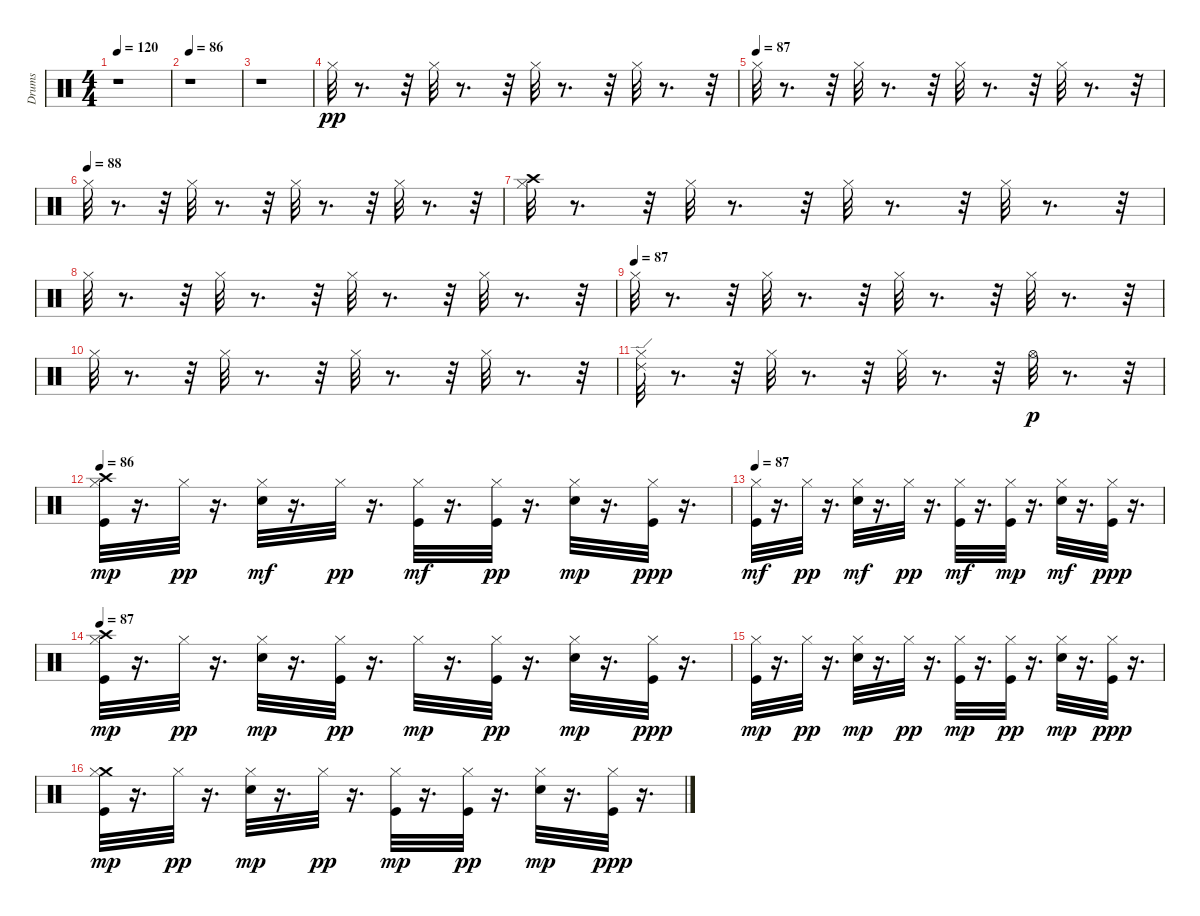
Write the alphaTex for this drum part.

\track ("Drums" "Drums") {instrument percussion}
\staff {score}
\articulation defaults
\ts (4 4)
\tempo 120
\clef neutral
\ks c
r.1{dy pp} |
\tempo 86
r.1 |
r.1 |
"Hi-Hat (closed)".32 r.8{d} r.32 "Hi-Hat (closed)".32 r.8{d} r.32 "Hi-Hat (closed)".32 r.8{d} r.32 "Hi-Hat (closed)".32 r.8{d} r.32 |
\tempo (87)
"Hi-Hat (closed)".32 r.8{d} r.32 "Hi-Hat (closed)".32 r.8{d} r.32 "Hi-Hat (closed)".32 r.8{d} r.32 "Hi-Hat (closed)".32 r.8{d} r.32 |
\tempo (88)
"Hi-Hat (closed)".32 r.8{d} r.32 "Hi-Hat (closed)".32 r.8{d} r.32 "Hi-Hat (closed)".32 r.8{d} r.32 "Hi-Hat (closed)".32 r.8{d} r.32 |
("Crash high (hit)" "Hi-Hat (closed)").32 r.8{d} r.32 "Hi-Hat (closed)".32 r.8{d} r.32 "Hi-Hat (closed)".32 r.8{d} r.32 "Hi-Hat (closed)".32 r.8{d} r.32 |
"Hi-Hat (closed)".32 r.8{d} r.32 "Hi-Hat (closed)".32 r.8{d} r.32 "Hi-Hat (closed)".32 r.8{d} r.32 "Hi-Hat (closed)".32 r.8{d} r.32 |
\tempo (87)
"Hi-Hat (closed)".32 r.8{d} r.32 "Hi-Hat (closed)".32 r.8{d} r.32 "Hi-Hat (closed)".32 r.8{d} r.32 "Hi-Hat (closed)".32 r.8{d} r.32 |
"Hi-Hat (closed)".32 r.8{d} r.32 "Hi-Hat (closed)".32 r.8{d} r.32 "Hi-Hat (closed)".32 r.8{d} r.32 "Hi-Hat (closed)".32 r.8{d} r.32 |
("Ride (edge) 2" "Hi-Hat (closed)").32 r.8{d} r.32 "Hi-Hat (closed)".32 r.8{d} r.32 "Hi-Hat (closed)".32 r.8{d} r.32 "Hi-Hat (open)".32{dy p} r.8{d} r.32 |
\tempo 86
("Crash high (hit)" "Kick (hit)" "Hi-Hat (closed)").32{dy mp} r.16{d} "Hi-Hat (closed)".32{dy pp} r.16{d} ("Hi-Hat (closed)" "Electric Snare (hit)").32{dy mf} r.16{d} "Hi-Hat (closed)".32{dy pp} r.16{d} ("Hi-Hat (closed)" "Kick (hit)").32{dy mf} r.16{d} ("Kick (hit)" "Hi-Hat (closed)").32{dy pp} r.16{d} ("Electric Snare (hit)" "Hi-Hat (closed)").32{dy mp} r.16{d} ("Hi-Hat (closed)" "Kick (hit)").32{dy ppp} r.16{d} |
\tempo 87
("Hi-Hat (closed)" "Kick (hit)").32{dy mf} r.16{d} "Hi-Hat (closed)".32{dy pp} r.16{d} ("Hi-Hat (closed)" "Electric Snare (hit)").32{dy mf} r.16{d} "Hi-Hat (closed)".32{dy pp} r.16{d} ("Hi-Hat (closed)" "Kick (hit)").32{dy mf} r.16{d} ("Hi-Hat (closed)" "Kick (hit)").32{dy mp} r.16{d} ("Hi-Hat (closed)" "Electric Snare (hit)").32{dy mf} r.16{d} ("Hi-Hat (closed)" "Kick (hit)").32{dy ppp} r.16{d} |
\tempo 87
("Kick (hit)" "Crash high (hit)" "Hi-Hat (closed)").32{dy mp} r.16{d} "Hi-Hat (closed)".32{dy pp} r.16{d} ("Electric Snare (hit)" "Hi-Hat (closed)").32{dy mp} r.16{d} ("Kick (hit)" "Hi-Hat (closed)").32{dy pp} r.16{d} "Hi-Hat (closed)".32{dy mp} r.16{d} ("Kick (hit)" "Hi-Hat (closed)").32{dy pp} r.16{d} ("Electric Snare (hit)" "Hi-Hat (closed)").32{dy mp} r.16{d} ("Kick (hit)" "Hi-Hat (closed)").32{dy ppp} r.16{d} |
("Kick (hit)" "Hi-Hat (closed)").32{dy mp} r.16{d} "Hi-Hat (closed)".32{dy pp} r.16{d} ("Electric Snare (hit)" "Hi-Hat (closed)").32{dy mp} r.16{d} "Hi-Hat (closed)".32{dy pp} r.16{d} ("Kick (hit)" "Hi-Hat (closed)").32{dy mp} r.16{d} ("Kick (hit)" "Hi-Hat (closed)").32{dy pp} r.16{d} ("Electric Snare (hit)" "Hi-Hat (closed)").32{dy mp} r.16{d} ("Kick (hit)" "Hi-Hat (closed)").32{dy ppp} r.16{d} |
("Kick (hit)" "Crash medium (hit)" "Hi-Hat (closed)").32{dy mp} r.16{d} "Hi-Hat (closed)".32{dy pp} r.16{d} ("Electric Snare (hit)" "Hi-Hat (closed)").32{dy mp} r.16{d} "Hi-Hat (closed)".32{dy pp} r.16{d} ("Kick (hit)" "Hi-Hat (closed)").32{dy mp} r.16{d} ("Kick (hit)" "Hi-Hat (closed)").32{dy pp} r.16{d} ("Electric Snare (hit)" "Hi-Hat (closed)").32{dy mp} r.16{d} ("Kick (hit)" "Hi-Hat (closed)").32{dy ppp} r.16{d}
